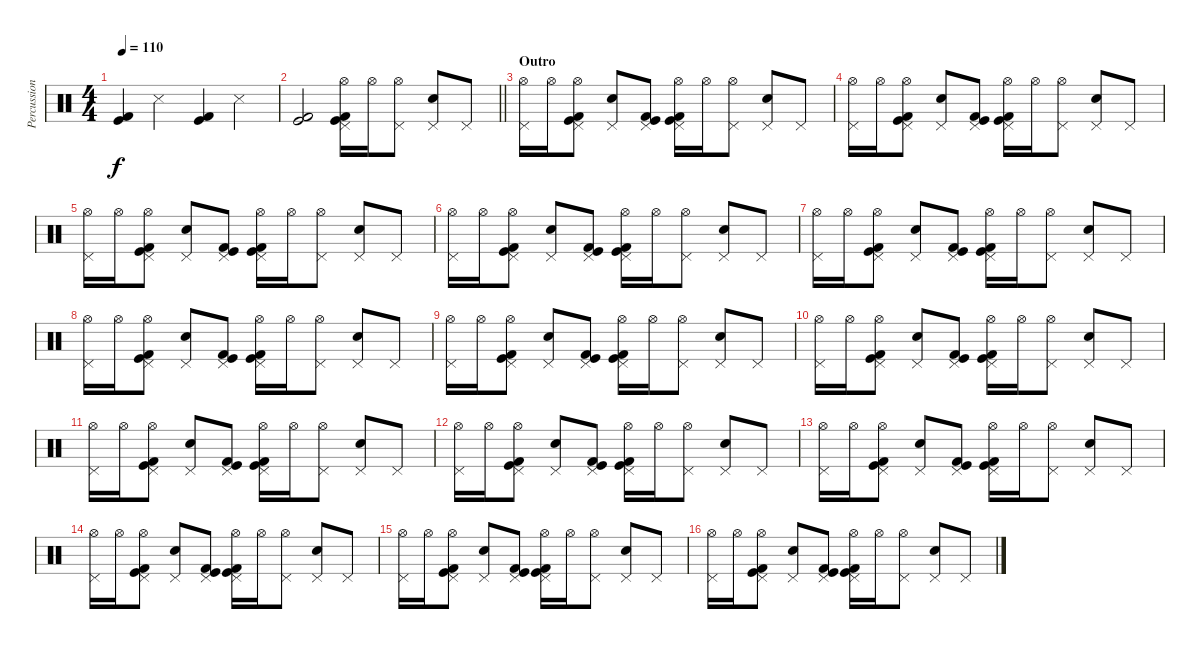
\track ("Percussion" "Percussion") {instrument percussion}
\staff {score}
\articulation defaults
\ts (4 4)
\tempo 110
\clef neutral
\ks c
("Kick (hit)" "Kick (hit) 2").4{dy f} "Snare (side stick) 3".4 ("Kick (hit)" "Kick (hit) 2").4 "Snare (side stick) 3".4 |
\barLineRight lightlight
("Kick (hit)" "Kick (hit) 2").2 ("Hi-Hat (open)" "Pedal Hi-Hat (hit)" "Kick (hit)" "Kick (hit) 2").16 "Hi-Hat (open)".16 ("Hi-Hat (open)" "Pedal Hi-Hat (hit)").8 ("Pedal Hi-Hat (hit)" "Electric Snare (hit)").8 "Pedal Hi-Hat (hit)".8 |
\section ("" "Outro")
("Hi-Hat (open)" "Pedal Hi-Hat (hit)").16 "Hi-Hat (open)".16 ("Hi-Hat (open)" "Pedal Hi-Hat (hit)" "Kick (hit)" "Kick (hit) 2").8 ("Pedal Hi-Hat (hit)" "Electric Snare (hit)").8 ("Pedal Hi-Hat (hit)" "Kick (hit)" "Kick (hit) 2").8 ("Hi-Hat (open)" "Pedal Hi-Hat (hit)" "Kick (hit)" "Kick (hit) 2").16 "Hi-Hat (open)".16 ("Hi-Hat (open)" "Pedal Hi-Hat (hit)").8 ("Pedal Hi-Hat (hit)" "Electric Snare (hit)").8 "Pedal Hi-Hat (hit)".8 |
("Hi-Hat (open)" "Pedal Hi-Hat (hit)").16 "Hi-Hat (open)".16 ("Hi-Hat (open)" "Pedal Hi-Hat (hit)" "Kick (hit)" "Kick (hit) 2").8 ("Pedal Hi-Hat (hit)" "Electric Snare (hit)").8 ("Pedal Hi-Hat (hit)" "Kick (hit)" "Kick (hit) 2").8 ("Hi-Hat (open)" "Pedal Hi-Hat (hit)" "Kick (hit)" "Kick (hit) 2").16 "Hi-Hat (open)".16 ("Hi-Hat (open)" "Pedal Hi-Hat (hit)").8 ("Pedal Hi-Hat (hit)" "Electric Snare (hit)").8 "Pedal Hi-Hat (hit)".8 |
("Hi-Hat (open)" "Pedal Hi-Hat (hit)").16 "Hi-Hat (open)".16 ("Hi-Hat (open)" "Pedal Hi-Hat (hit)" "Kick (hit)" "Kick (hit) 2").8 ("Pedal Hi-Hat (hit)" "Electric Snare (hit)").8 ("Pedal Hi-Hat (hit)" "Kick (hit)" "Kick (hit) 2").8 ("Hi-Hat (open)" "Pedal Hi-Hat (hit)" "Kick (hit)" "Kick (hit) 2").16 "Hi-Hat (open)".16 ("Hi-Hat (open)" "Pedal Hi-Hat (hit)").8 ("Pedal Hi-Hat (hit)" "Electric Snare (hit)").8 "Pedal Hi-Hat (hit)".8 |
("Hi-Hat (open)" "Pedal Hi-Hat (hit)").16 "Hi-Hat (open)".16 ("Hi-Hat (open)" "Pedal Hi-Hat (hit)" "Kick (hit)" "Kick (hit) 2").8 ("Pedal Hi-Hat (hit)" "Electric Snare (hit)").8 ("Pedal Hi-Hat (hit)" "Kick (hit)" "Kick (hit) 2").8 ("Hi-Hat (open)" "Pedal Hi-Hat (hit)" "Kick (hit)" "Kick (hit) 2").16 "Hi-Hat (open)".16 ("Hi-Hat (open)" "Pedal Hi-Hat (hit)").8 ("Pedal Hi-Hat (hit)" "Electric Snare (hit)").8 "Pedal Hi-Hat (hit)".8 |
("Hi-Hat (open)" "Pedal Hi-Hat (hit)").16 "Hi-Hat (open)".16 ("Hi-Hat (open)" "Pedal Hi-Hat (hit)" "Kick (hit)" "Kick (hit) 2").8 ("Pedal Hi-Hat (hit)" "Electric Snare (hit)").8 ("Pedal Hi-Hat (hit)" "Kick (hit)" "Kick (hit) 2").8 ("Hi-Hat (open)" "Pedal Hi-Hat (hit)" "Kick (hit)" "Kick (hit) 2").16 "Hi-Hat (open)".16 ("Hi-Hat (open)" "Pedal Hi-Hat (hit)").8 ("Pedal Hi-Hat (hit)" "Electric Snare (hit)").8 "Pedal Hi-Hat (hit)".8 |
("Hi-Hat (open)" "Pedal Hi-Hat (hit)").16 "Hi-Hat (open)".16 ("Hi-Hat (open)" "Pedal Hi-Hat (hit)" "Kick (hit)" "Kick (hit) 2").8 ("Pedal Hi-Hat (hit)" "Electric Snare (hit)").8 ("Pedal Hi-Hat (hit)" "Kick (hit)" "Kick (hit) 2").8 ("Hi-Hat (open)" "Pedal Hi-Hat (hit)" "Kick (hit)" "Kick (hit) 2").16 "Hi-Hat (open)".16 ("Hi-Hat (open)" "Pedal Hi-Hat (hit)").8 ("Pedal Hi-Hat (hit)" "Electric Snare (hit)").8 "Pedal Hi-Hat (hit)".8 |
("Hi-Hat (open)" "Pedal Hi-Hat (hit)").16 "Hi-Hat (open)".16 ("Hi-Hat (open)" "Pedal Hi-Hat (hit)" "Kick (hit)" "Kick (hit) 2").8 ("Pedal Hi-Hat (hit)" "Electric Snare (hit)").8 ("Pedal Hi-Hat (hit)" "Kick (hit)" "Kick (hit) 2").8 ("Hi-Hat (open)" "Pedal Hi-Hat (hit)" "Kick (hit)" "Kick (hit) 2").16 "Hi-Hat (open)".16 ("Hi-Hat (open)" "Pedal Hi-Hat (hit)").8 ("Pedal Hi-Hat (hit)" "Electric Snare (hit)").8 "Pedal Hi-Hat (hit)".8 |
("Hi-Hat (open)" "Pedal Hi-Hat (hit)").16 "Hi-Hat (open)".16 ("Hi-Hat (open)" "Pedal Hi-Hat (hit)" "Kick (hit)" "Kick (hit) 2").8 ("Pedal Hi-Hat (hit)" "Electric Snare (hit)").8 ("Pedal Hi-Hat (hit)" "Kick (hit)" "Kick (hit) 2").8 ("Hi-Hat (open)" "Pedal Hi-Hat (hit)" "Kick (hit)" "Kick (hit) 2").16 "Hi-Hat (open)".16 ("Hi-Hat (open)" "Pedal Hi-Hat (hit)").8 ("Pedal Hi-Hat (hit)" "Electric Snare (hit)").8 "Pedal Hi-Hat (hit)".8 |
("Hi-Hat (open)" "Pedal Hi-Hat (hit)").16 "Hi-Hat (open)".16 ("Hi-Hat (open)" "Pedal Hi-Hat (hit)" "Kick (hit)" "Kick (hit) 2").8 ("Pedal Hi-Hat (hit)" "Electric Snare (hit)").8 ("Pedal Hi-Hat (hit)" "Kick (hit)" "Kick (hit) 2").8 ("Hi-Hat (open)" "Pedal Hi-Hat (hit)" "Kick (hit)" "Kick (hit) 2").16 "Hi-Hat (open)".16 ("Hi-Hat (open)" "Pedal Hi-Hat (hit)").8 ("Pedal Hi-Hat (hit)" "Electric Snare (hit)").8 "Pedal Hi-Hat (hit)".8 |
("Hi-Hat (open)" "Pedal Hi-Hat (hit)").16 "Hi-Hat (open)".16 ("Hi-Hat (open)" "Pedal Hi-Hat (hit)" "Kick (hit)" "Kick (hit) 2").8 ("Pedal Hi-Hat (hit)" "Electric Snare (hit)").8 ("Pedal Hi-Hat (hit)" "Kick (hit)" "Kick (hit) 2").8 ("Hi-Hat (open)" "Pedal Hi-Hat (hit)" "Kick (hit)" "Kick (hit) 2").16 "Hi-Hat (open)".16 ("Hi-Hat (open)" "Pedal Hi-Hat (hit)").8 ("Pedal Hi-Hat (hit)" "Electric Snare (hit)").8 "Pedal Hi-Hat (hit)".8 |
("Hi-Hat (open)" "Pedal Hi-Hat (hit)").16 "Hi-Hat (open)".16 ("Hi-Hat (open)" "Pedal Hi-Hat (hit)" "Kick (hit)" "Kick (hit) 2").8 ("Pedal Hi-Hat (hit)" "Electric Snare (hit)").8 ("Pedal Hi-Hat (hit)" "Kick (hit)" "Kick (hit) 2").8 ("Hi-Hat (open)" "Pedal Hi-Hat (hit)" "Kick (hit)" "Kick (hit) 2").16 "Hi-Hat (open)".16 ("Hi-Hat (open)" "Pedal Hi-Hat (hit)").8 ("Pedal Hi-Hat (hit)" "Electric Snare (hit)").8 "Pedal Hi-Hat (hit)".8 |
("Hi-Hat (open)" "Pedal Hi-Hat (hit)").16 "Hi-Hat (open)".16 ("Hi-Hat (open)" "Pedal Hi-Hat (hit)" "Kick (hit)" "Kick (hit) 2").8 ("Pedal Hi-Hat (hit)" "Electric Snare (hit)").8 ("Pedal Hi-Hat (hit)" "Kick (hit)" "Kick (hit) 2").8 ("Hi-Hat (open)" "Pedal Hi-Hat (hit)" "Kick (hit)" "Kick (hit) 2").16 "Hi-Hat (open)".16 ("Hi-Hat (open)" "Pedal Hi-Hat (hit)").8 ("Pedal Hi-Hat (hit)" "Electric Snare (hit)").8 "Pedal Hi-Hat (hit)".8 |
("Hi-Hat (open)" "Pedal Hi-Hat (hit)").16 "Hi-Hat (open)".16 ("Hi-Hat (open)" "Pedal Hi-Hat (hit)" "Kick (hit)" "Kick (hit) 2").8 ("Pedal Hi-Hat (hit)" "Electric Snare (hit)").8 ("Pedal Hi-Hat (hit)" "Kick (hit)" "Kick (hit) 2").8 ("Hi-Hat (open)" "Pedal Hi-Hat (hit)" "Kick (hit)" "Kick (hit) 2").16 "Hi-Hat (open)".16 ("Hi-Hat (open)" "Pedal Hi-Hat (hit)").8 ("Pedal Hi-Hat (hit)" "Electric Snare (hit)").8 "Pedal Hi-Hat (hit)".8 |
("Hi-Hat (open)" "Pedal Hi-Hat (hit)").16 "Hi-Hat (open)".16 ("Hi-Hat (open)" "Pedal Hi-Hat (hit)" "Kick (hit)" "Kick (hit) 2").8 ("Pedal Hi-Hat (hit)" "Electric Snare (hit)").8 ("Pedal Hi-Hat (hit)" "Kick (hit)" "Kick (hit) 2").8 ("Hi-Hat (open)" "Pedal Hi-Hat (hit)" "Kick (hit)" "Kick (hit) 2").16 "Hi-Hat (open)".16 ("Hi-Hat (open)" "Pedal Hi-Hat (hit)").8 ("Pedal Hi-Hat (hit)" "Electric Snare (hit)").8 "Pedal Hi-Hat (hit)".8
